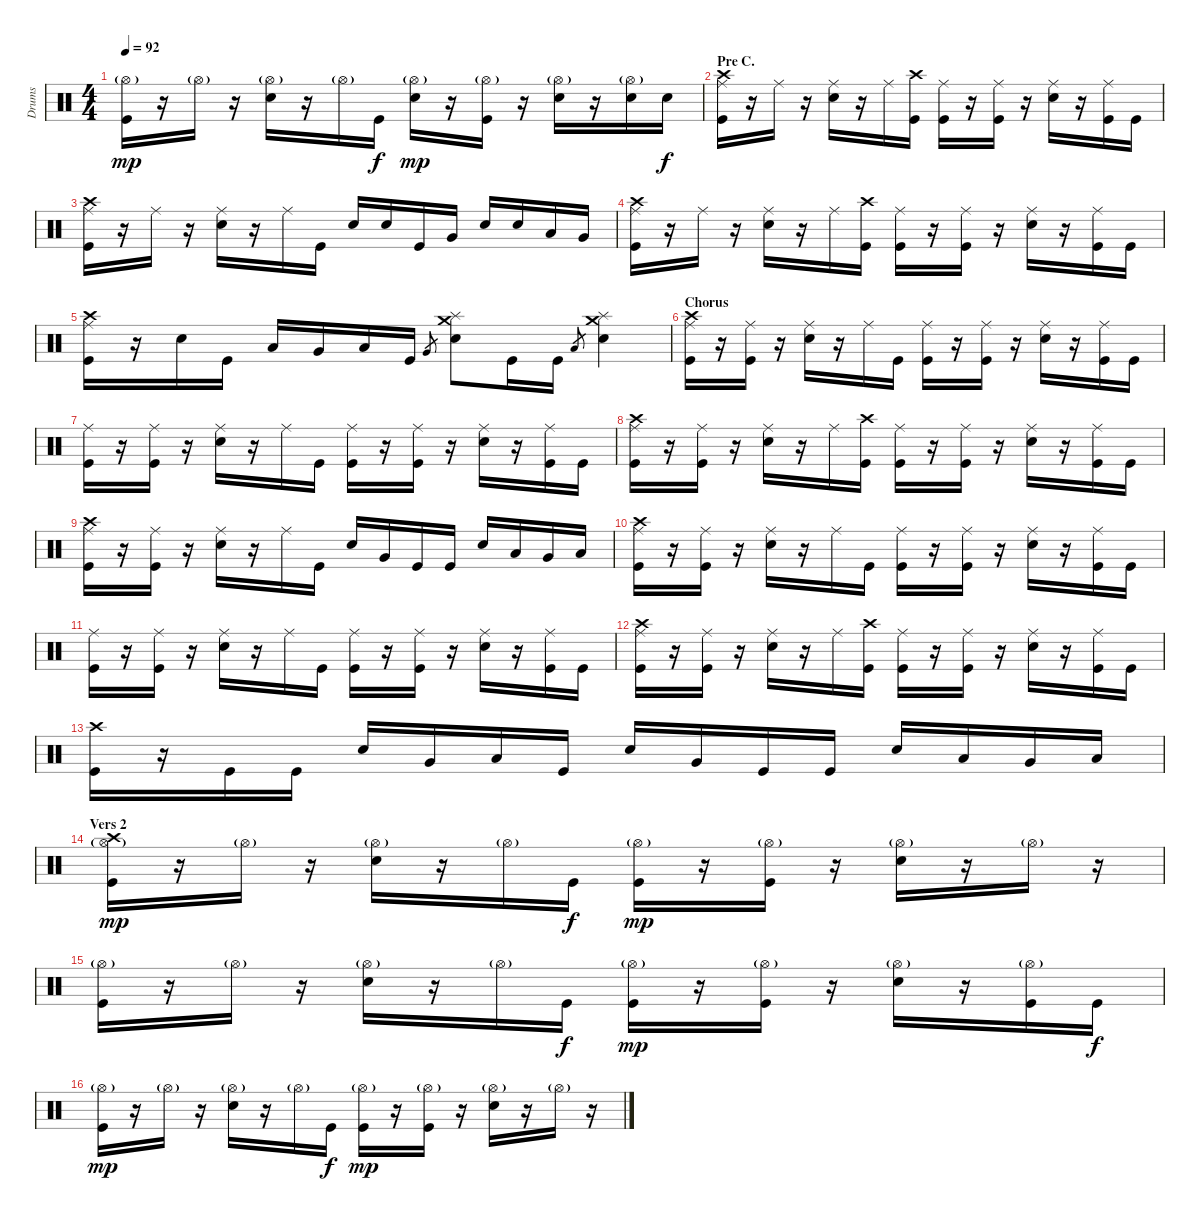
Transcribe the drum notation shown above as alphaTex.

\track ("Drums" "Drums") {instrument percussion}
\staff {score}
\articulation defaults
\ts (4 4)
\tempo 92
\clef neutral
\ks c
("Hi-Hat (open)"{g} "Kick (hit)").16{dy mp} r.16 "Hi-Hat (open)"{g}.16 r.16 ("Hi-Hat (open)"{g} "Snare (hit) 2").16 r.16 "Hi-Hat (open)"{g}.16 "Kick (hit)".16{dy f} ("Hi-Hat (open)"{g} "Snare (hit) 2").16{dy mp} r.16 ("Hi-Hat (open)"{g} "Kick (hit)").16 r.16 ("Hi-Hat (open)"{g} "Snare (hit) 2").16 r.16 ("Hi-Hat (open)"{g} "Snare (hit) 2").16 "Snare (hit) 2".16{dy f} |
\section ("" "Pre C.")
("Ride (middle)" "Crash high (hit)" "Kick (hit)").16 r.16 "Ride (middle)".16 r.16 ("Ride (middle)" "Snare (hit) 2").16 r.16 "Ride (middle)".16 ("Crash high (hit)" "Kick (hit)").16 ("Ride (middle)" "Kick (hit)").16 r.16 ("Ride (middle)" "Kick (hit)").16 r.16 ("Ride (middle)" "Snare (hit) 2").16 r.16 ("Ride (middle)" "Kick (hit)").16 "Kick (hit)".16 |
("Ride (middle)" "Crash high (hit)" "Kick (hit)").16 r.16 "Ride (middle)".16 r.16 ("Ride (middle)" "Snare (hit) 2").16 r.16 "Ride (middle)".16 "Kick (hit)".16 "Snare (hit) 2".16 "Snare (hit) 2".16 "Kick (hit)".16 "Very Low Tom (hit)".16 "Snare (hit) 2".16 "Snare (hit) 2".16 "Low Tom (hit)".16 "Very Low Tom (hit)".16 |
("Ride (middle)" "Crash high (hit)" "Kick (hit)").16 r.16 "Ride (middle)".16 r.16 ("Ride (middle)" "Snare (hit) 2").16 r.16 "Ride (middle)".16 ("Crash high (hit)" "Kick (hit)").16 ("Ride (middle)" "Kick (hit)").16 r.16 ("Ride (middle)" "Kick (hit)").16 r.16 ("Ride (middle)" "Snare (hit) 2").16 r.16 ("Ride (middle)" "Kick (hit)").16 "Kick (hit)".16 |
("Ride (middle)" "Crash high (hit)" "Kick (hit)").16 r.16 "Snare (hit) 2".16 "Kick (hit)".16 "Low Tom (hit)".16 "Very Low Tom (hit)".16 "Low Floor Tom (hit)".16 "Kick (hit)".16 "Very Low Tom (hit)".8{gr} ("Splash (hit)" "Crash medium (hit)" "Snare (hit) 2").8 "Kick (hit)".16 "Kick (hit)".16 "Low Floor Tom (hit)".8{gr} ("Splash (hit)" "Crash medium (hit)" "Snare (hit) 2").4 |
\section ("" "Chorus")
("Ride (middle)" "Crash high (hit)" "Kick (hit)").16 r.16 ("Ride (middle)" "Kick (hit)").16 r.16 ("Ride (middle)" "Snare (hit) 2").16 r.16 "Ride (middle)".16 "Kick (hit)".16 ("Ride (middle)" "Kick (hit)").16 r.16 ("Ride (middle)" "Kick (hit)").16 r.16 ("Ride (middle)" "Snare (hit) 2").16 r.16 ("Ride (middle)" "Kick (hit)").16 "Kick (hit)".16 |
("Ride (middle)" "Kick (hit)").16 r.16 ("Ride (middle)" "Kick (hit)").16 r.16 ("Ride (middle)" "Snare (hit) 2").16 r.16 "Ride (middle)".16 "Kick (hit)".16 ("Ride (middle)" "Kick (hit)").16 r.16 ("Ride (middle)" "Kick (hit)").16 r.16 ("Ride (middle)" "Snare (hit) 2").16 r.16 ("Ride (middle)" "Kick (hit)").16 "Kick (hit)".16 |
("Ride (middle)" "Crash high (hit)" "Kick (hit)").16 r.16 ("Ride (middle)" "Kick (hit)").16 r.16 ("Ride (middle)" "Snare (hit) 2").16 r.16 "Ride (middle)".16 ("Crash high (hit)" "Kick (hit)").16 ("Ride (middle)" "Kick (hit)").16 r.16 ("Ride (middle)" "Kick (hit)").16 r.16 ("Ride (middle)" "Snare (hit) 2").16 r.16 ("Ride (middle)" "Kick (hit)").16 "Kick (hit)".16 |
("Ride (middle)" "Crash high (hit)" "Kick (hit)").16 r.16 ("Ride (middle)" "Kick (hit)").16 r.16 ("Ride (middle)" "Snare (hit) 2").16 r.16 "Ride (middle)".16 "Kick (hit)".16 "Snare (hit) 2".16 "Very Low Tom (hit)".16 "Kick (hit)".16 "Kick (hit)".16 "Snare (hit) 2".16 "Low Tom (hit)".16 "Very Low Tom (hit)".16 "Low Tom (hit)".16 |
("Ride (middle)" "Crash high (hit)" "Kick (hit)").16 r.16 ("Ride (middle)" "Kick (hit)").16 r.16 ("Ride (middle)" "Snare (hit) 2").16 r.16 "Ride (middle)".16 "Kick (hit)".16 ("Ride (middle)" "Kick (hit)").16 r.16 ("Ride (middle)" "Kick (hit)").16 r.16 ("Ride (middle)" "Snare (hit) 2").16 r.16 ("Ride (middle)" "Kick (hit)").16 "Kick (hit)".16 |
("Ride (middle)" "Kick (hit)").16 r.16 ("Ride (middle)" "Kick (hit)").16 r.16 ("Ride (middle)" "Snare (hit) 2").16 r.16 "Ride (middle)".16 "Kick (hit)".16 ("Ride (middle)" "Kick (hit)").16 r.16 ("Ride (middle)" "Kick (hit)").16 r.16 ("Ride (middle)" "Snare (hit) 2").16 r.16 ("Ride (middle)" "Kick (hit)").16 "Kick (hit)".16 |
("Ride (middle)" "Crash high (hit)" "Kick (hit)").16 r.16 ("Ride (middle)" "Kick (hit)").16 r.16 ("Ride (middle)" "Snare (hit) 2").16 r.16 "Ride (middle)".16 ("Crash high (hit)" "Kick (hit)").16 ("Ride (middle)" "Kick (hit)").16 r.16 ("Ride (middle)" "Kick (hit)").16 r.16 ("Ride (middle)" "Snare (hit) 2").16 r.16 ("Ride (middle)" "Kick (hit)").16 "Kick (hit)".16 |
("Crash high (hit)" "Kick (hit)").16 r.16 "Kick (hit)".16 "Kick (hit)".16 "Snare (hit) 2".16 "Very Low Tom (hit)".16 "Low Tom (hit)".16 "Kick (hit)".16 "Snare (hit) 2".16 "Very Low Tom (hit)".16 "Kick (hit)".16 "Kick (hit)".16 "Snare (hit) 2".16 "Low Tom (hit)".16 "Very Low Tom (hit)".16 "Low Tom (hit)".16 |
\section ("" "Vers 2")
("Hi-Hat (open)"{g} "Crash high (hit)" "Kick (hit)").16{dy mp} r.16 "Hi-Hat (open)"{g}.16 r.16 ("Hi-Hat (open)"{g} "Snare (hit) 2").16 r.16 "Hi-Hat (open)"{g}.16 "Kick (hit)".16{dy f} ("Hi-Hat (open)"{g} "Kick (hit)").16{dy mp} r.16 ("Hi-Hat (open)"{g} "Kick (hit)").16 r.16 ("Hi-Hat (open)"{g} "Snare (hit) 2").16 r.16 "Hi-Hat (open)"{g}.16 r.16 |
("Hi-Hat (open)"{g} "Kick (hit)").16 r.16 "Hi-Hat (open)"{g}.16 r.16 ("Hi-Hat (open)"{g} "Snare (hit) 2").16 r.16 "Hi-Hat (open)"{g}.16 "Kick (hit)".16{dy f} ("Hi-Hat (open)"{g} "Kick (hit)").16{dy mp} r.16 ("Hi-Hat (open)"{g} "Kick (hit)").16 r.16 ("Hi-Hat (open)"{g} "Snare (hit) 2").16 r.16 ("Hi-Hat (open)"{g} "Kick (hit)").16 "Kick (hit)".16{dy f} |
("Hi-Hat (open)"{g} "Kick (hit)").16{dy mp} r.16 "Hi-Hat (open)"{g}.16 r.16 ("Hi-Hat (open)"{g} "Snare (hit) 2").16 r.16 "Hi-Hat (open)"{g}.16 "Kick (hit)".16{dy f} ("Hi-Hat (open)"{g} "Kick (hit)").16{dy mp} r.16 ("Hi-Hat (open)"{g} "Kick (hit)").16 r.16 ("Hi-Hat (open)"{g} "Snare (hit) 2").16 r.16 "Hi-Hat (open)"{g}.16 r.16
